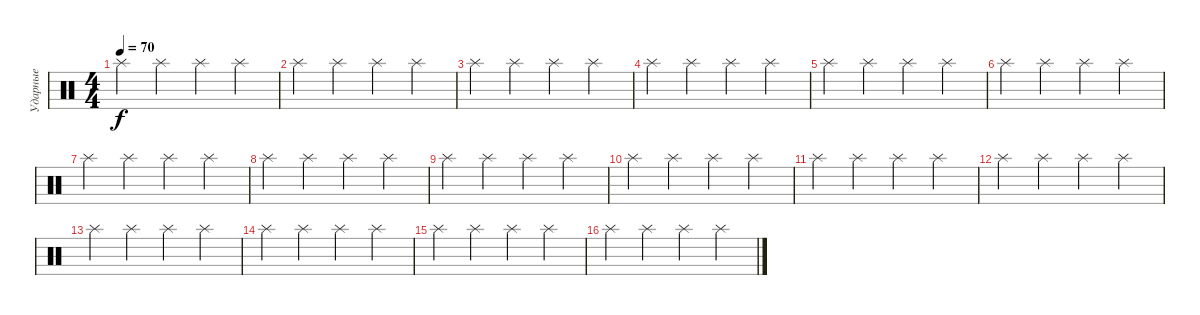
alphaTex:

\track ("Ударные" "Ударные") {instrument percussion}
\staff {score}
\articulation defaults
\ts (4 4)
\tempo 70
\clef neutral
\ks c "Splash (hit)".4{dy f} "Splash (hit)".4 "Splash (hit)".4 "Splash (hit)".4
|
"Splash (hit)".4 "Splash (hit)".4 "Splash (hit)".4 "Splash (hit)".4 |
"Splash (hit)".4 "Splash (hit)".4 "Splash (hit)".4 "Splash (hit)".4 |
"Splash (hit)".4 "Splash (hit)".4 "Splash (hit)".4 "Splash (hit)".4 |
"Splash (hit)".4 "Splash (hit)".4 "Splash (hit)".4 "Splash (hit)".4 |
"Splash (hit)".4 "Splash (hit)".4 "Splash (hit)".4 "Splash (hit)".4 |
"Splash (hit)".4 "Splash (hit)".4 "Splash (hit)".4 "Splash (hit)".4 |
"Splash (hit)".4 "Splash (hit)".4 "Splash (hit)".4 "Splash (hit)".4 |
"Splash (hit)".4 "Splash (hit)".4 "Splash (hit)".4 "Splash (hit)".4 |
"Splash (hit)".4 "Splash (hit)".4 "Splash (hit)".4 "Splash (hit)".4 |
"Splash (hit)".4 "Splash (hit)".4 "Splash (hit)".4 "Splash (hit)".4 |
"Splash (hit)".4 "Splash (hit)".4 "Splash (hit)".4 "Splash (hit)".4 |
"Splash (hit)".4 "Splash (hit)".4 "Splash (hit)".4 "Splash (hit)".4 |
"Splash (hit)".4 "Splash (hit)".4 "Splash (hit)".4 "Splash (hit)".4 |
"Splash (hit)".4 "Splash (hit)".4 "Splash (hit)".4 "Splash (hit)".4 |
"Splash (hit)".4 "Splash (hit)".4 "Splash (hit)".4 "Splash (hit)".4
